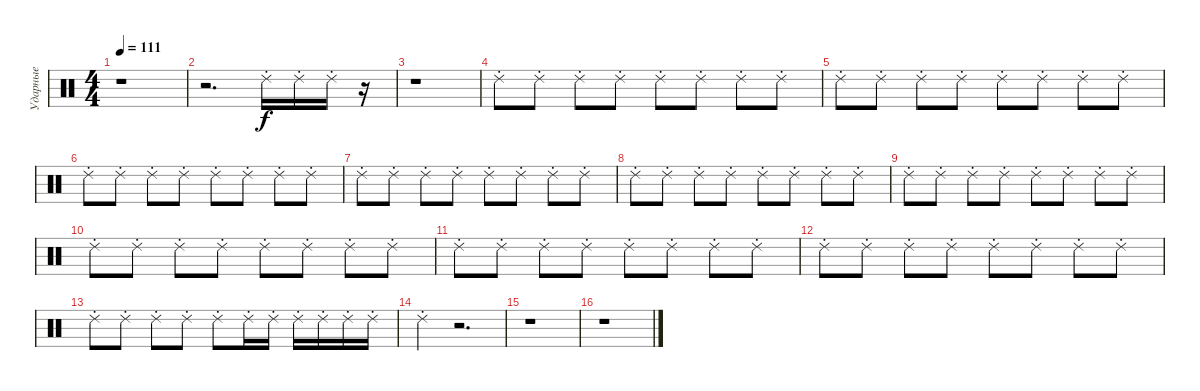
\track ("Ударные" "Ударные") {instrument percussion}
\staff {score}
\articulation defaults
\ts (4 4)
\tempo 111
\clef neutral
\ks c
r.1{dy f} |
r.2{d} "Ride (choke) 2".16 "Ride (choke) 2".16 "Ride (choke) 2".16 r.16 |
r.1 |
"Ride (choke) 2".8 "Ride (choke) 2".8 "Ride (choke) 2".8 "Ride (choke) 2".8 "Ride (choke) 2".8 "Ride (choke) 2".8 "Ride (choke) 2".8 "Ride (choke) 2".8 |
"Ride (choke) 2".8 "Ride (choke) 2".8 "Ride (choke) 2".8 "Ride (choke) 2".8 "Ride (choke) 2".8 "Ride (choke) 2".8 "Ride (choke) 2".8 "Ride (choke) 2".8 |
"Ride (choke) 2".8 "Ride (choke) 2".8 "Ride (choke) 2".8 "Ride (choke) 2".8 "Ride (choke) 2".8 "Ride (choke) 2".8 "Ride (choke) 2".8 "Ride (choke) 2".8 |
"Ride (choke) 2".8 "Ride (choke) 2".8 "Ride (choke) 2".8 "Ride (choke) 2".8 "Ride (choke) 2".8 "Ride (choke) 2".8 "Ride (choke) 2".8 "Ride (choke) 2".8 |
"Ride (choke) 2".8 "Ride (choke) 2".8 "Ride (choke) 2".8 "Ride (choke) 2".8 "Ride (choke) 2".8 "Ride (choke) 2".8 "Ride (choke) 2".8 "Ride (choke) 2".8 |
"Ride (choke) 2".8 "Ride (choke) 2".8 "Ride (choke) 2".8 "Ride (choke) 2".8 "Ride (choke) 2".8 "Ride (choke) 2".8 "Ride (choke) 2".8 "Ride (choke) 2".8 |
"Ride (choke) 2".8 "Ride (choke) 2".8 "Ride (choke) 2".8 "Ride (choke) 2".8 "Ride (choke) 2".8 "Ride (choke) 2".8 "Ride (choke) 2".8 "Ride (choke) 2".8 |
"Ride (choke) 2".8 "Ride (choke) 2".8 "Ride (choke) 2".8 "Ride (choke) 2".8 "Ride (choke) 2".8 "Ride (choke) 2".8 "Ride (choke) 2".8 "Ride (choke) 2".8 |
"Ride (choke) 2".8 "Ride (choke) 2".8 "Ride (choke) 2".8 "Ride (choke) 2".8 "Ride (choke) 2".8 "Ride (choke) 2".8 "Ride (choke) 2".8 "Ride (choke) 2".8 |
"Ride (choke) 2".8 "Ride (choke) 2".8 "Ride (choke) 2".8 "Ride (choke) 2".8 "Ride (choke) 2".8 "Ride (choke) 2".16 "Ride (choke) 2".16 "Ride (choke) 2".16 "Ride (choke) 2".16 "Ride (choke) 2".16 "Ride (choke) 2".16 |
"Ride (choke) 2".4 r.2{d} |
r.1 |
r.1
